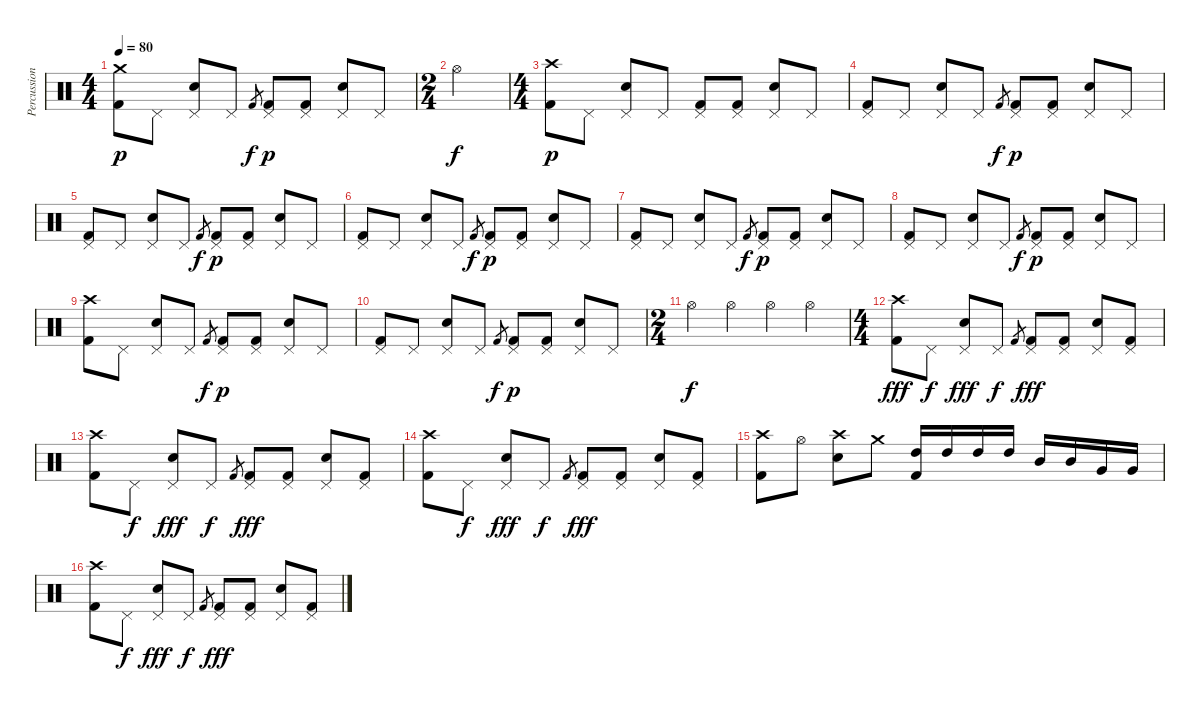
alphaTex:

\track ("Percussion" "Percussion") {instrument percussion}
\staff {score}
\articulation defaults
\ts (4 4)
\tempo 80
\clef neutral
\ks c
("Crash medium (hit)" "Kick (hit) 2").8{dy p} "Pedal Hi-Hat (hit)".8 ("Pedal Hi-Hat (hit)" "Electric Snare (hit)").8 "Pedal Hi-Hat (hit)".8 "Kick (hit) 2".8{gr dy f} ("Pedal Hi-Hat (hit)" "Kick (hit) 2").8{dy p} ("Pedal Hi-Hat (hit)" "Kick (hit) 2").8 ("Pedal Hi-Hat (hit)" "Electric Snare (hit)").8 "Pedal Hi-Hat (hit)".8 |
\ts (2 4)
"Hi-Hat (open)".2{dy f} |
\ts (4 4)
("Crash high (hit)" "Kick (hit) 2").8{dy p} "Pedal Hi-Hat (hit)".8 ("Pedal Hi-Hat (hit)" "Electric Snare (hit)").8 "Pedal Hi-Hat (hit)".8 ("Pedal Hi-Hat (hit)" "Kick (hit) 2").8 ("Pedal Hi-Hat (hit)" "Kick (hit) 2").8 ("Pedal Hi-Hat (hit)" "Electric Snare (hit)").8 "Pedal Hi-Hat (hit)".8 |
("Pedal Hi-Hat (hit)" "Kick (hit) 2").8 "Pedal Hi-Hat (hit)".8 ("Pedal Hi-Hat (hit)" "Electric Snare (hit)").8 "Pedal Hi-Hat (hit)".8 "Kick (hit) 2".8{gr dy f} ("Pedal Hi-Hat (hit)" "Kick (hit) 2").8{dy p} ("Pedal Hi-Hat (hit)" "Kick (hit) 2").8 ("Pedal Hi-Hat (hit)" "Electric Snare (hit)").8 "Pedal Hi-Hat (hit)".8 |
("Pedal Hi-Hat (hit)" "Kick (hit) 2").8 "Pedal Hi-Hat (hit)".8 ("Pedal Hi-Hat (hit)" "Electric Snare (hit)").8 "Pedal Hi-Hat (hit)".8 "Kick (hit) 2".8{gr dy f} ("Pedal Hi-Hat (hit)" "Kick (hit) 2").8{dy p} ("Pedal Hi-Hat (hit)" "Kick (hit) 2").8 ("Pedal Hi-Hat (hit)" "Electric Snare (hit)").8 "Pedal Hi-Hat (hit)".8 |
("Pedal Hi-Hat (hit)" "Kick (hit) 2").8 "Pedal Hi-Hat (hit)".8 ("Pedal Hi-Hat (hit)" "Electric Snare (hit)").8 "Pedal Hi-Hat (hit)".8 "Kick (hit) 2".8{gr dy f} ("Pedal Hi-Hat (hit)" "Kick (hit) 2").8{dy p} ("Pedal Hi-Hat (hit)" "Kick (hit) 2").8 ("Pedal Hi-Hat (hit)" "Electric Snare (hit)").8 "Pedal Hi-Hat (hit)".8 |
("Pedal Hi-Hat (hit)" "Kick (hit) 2").8 "Pedal Hi-Hat (hit)".8 ("Pedal Hi-Hat (hit)" "Electric Snare (hit)").8 "Pedal Hi-Hat (hit)".8 "Kick (hit) 2".8{gr dy f} ("Pedal Hi-Hat (hit)" "Kick (hit) 2").8{dy p} ("Pedal Hi-Hat (hit)" "Kick (hit) 2").8 ("Pedal Hi-Hat (hit)" "Electric Snare (hit)").8 "Pedal Hi-Hat (hit)".8 |
("Pedal Hi-Hat (hit)" "Kick (hit) 2").8 "Pedal Hi-Hat (hit)".8 ("Pedal Hi-Hat (hit)" "Electric Snare (hit)").8 "Pedal Hi-Hat (hit)".8 "Kick (hit) 2".8{gr dy f} ("Pedal Hi-Hat (hit)" "Kick (hit) 2").8{dy p} ("Pedal Hi-Hat (hit)" "Kick (hit) 2").8 ("Pedal Hi-Hat (hit)" "Electric Snare (hit)").8 "Pedal Hi-Hat (hit)".8 |
("Crash high (hit)" "Kick (hit) 2").8 "Pedal Hi-Hat (hit)".8 ("Pedal Hi-Hat (hit)" "Electric Snare (hit)").8 "Pedal Hi-Hat (hit)".8 "Kick (hit) 2".8{gr dy f} ("Pedal Hi-Hat (hit)" "Kick (hit) 2").8{dy p} ("Pedal Hi-Hat (hit)" "Kick (hit) 2").8 ("Pedal Hi-Hat (hit)" "Electric Snare (hit)").8 "Pedal Hi-Hat (hit)".8 |
("Pedal Hi-Hat (hit)" "Kick (hit) 2").8 "Pedal Hi-Hat (hit)".8 ("Pedal Hi-Hat (hit)" "Electric Snare (hit)").8 "Pedal Hi-Hat (hit)".8 "Kick (hit) 2".8{gr dy f} ("Pedal Hi-Hat (hit)" "Kick (hit) 2").8{dy p} ("Pedal Hi-Hat (hit)" "Kick (hit) 2").8 ("Pedal Hi-Hat (hit)" "Electric Snare (hit)").8 "Pedal Hi-Hat (hit)".8 |
\ts (2 4)
"Hi-Hat (open)".4{dy f} "Hi-Hat (open)".4 "Hi-Hat (open)".4 "Hi-Hat (open)".4 |
\ts (4 4)
("Crash high (hit)" "Kick (hit) 2").8{dy fff} "Pedal Hi-Hat (hit)".8{dy f} ("Pedal Hi-Hat (hit)" "Electric Snare (hit)").8{dy fff} "Pedal Hi-Hat (hit)".8{dy f} "Kick (hit) 2".8{gr} ("Pedal Hi-Hat (hit)" "Kick (hit) 2").8{dy fff} ("Pedal Hi-Hat (hit)" "Kick (hit) 2").8 ("Pedal Hi-Hat (hit)" "Electric Snare (hit)").8 ("Pedal Hi-Hat (hit)" "Kick (hit) 2").8 |
("Crash high (hit)" "Kick (hit) 2").8 "Pedal Hi-Hat (hit)".8{dy f} ("Pedal Hi-Hat (hit)" "Electric Snare (hit)").8{dy fff} "Pedal Hi-Hat (hit)".8{dy f} "Kick (hit) 2".8{gr} ("Pedal Hi-Hat (hit)" "Kick (hit) 2").8{dy fff} ("Pedal Hi-Hat (hit)" "Kick (hit) 2").8 ("Pedal Hi-Hat (hit)" "Electric Snare (hit)").8 ("Pedal Hi-Hat (hit)" "Kick (hit) 2").8 |
("Crash high (hit)" "Kick (hit) 2").8 "Pedal Hi-Hat (hit)".8{dy f} ("Pedal Hi-Hat (hit)" "Electric Snare (hit)").8{dy fff} "Pedal Hi-Hat (hit)".8{dy f} "Kick (hit) 2".8{gr} ("Pedal Hi-Hat (hit)" "Kick (hit) 2").8{dy fff} ("Pedal Hi-Hat (hit)" "Kick (hit) 2").8 ("Pedal Hi-Hat (hit)" "Electric Snare (hit)").8 ("Pedal Hi-Hat (hit)" "Kick (hit) 2").8 |
("Crash high (hit)" "Kick (hit) 2").8 "Hi-Hat (open)".8 ("Crash high (hit)" "Electric Snare (hit)").8 "Crash medium (hit)".8 ("High Tom (hit)" "Kick (hit) 2").16 "High Tom (hit)".16 "High Tom (hit)".16 "High Tom (hit)".16 "Mid Tom (hit)".16 "Mid Tom (hit)".16 "Very Low Tom (hit)".16 "Very Low Tom (hit)".16 |
("Crash high (hit)" "Kick (hit) 2").8 "Pedal Hi-Hat (hit)".8{dy f} ("Pedal Hi-Hat (hit)" "Electric Snare (hit)").8{dy fff} "Pedal Hi-Hat (hit)".8{dy f} "Kick (hit) 2".8{gr} ("Pedal Hi-Hat (hit)" "Kick (hit) 2").8{dy fff} ("Pedal Hi-Hat (hit)" "Kick (hit) 2").8 ("Pedal Hi-Hat (hit)" "Electric Snare (hit)").8 ("Pedal Hi-Hat (hit)" "Kick (hit) 2").8
